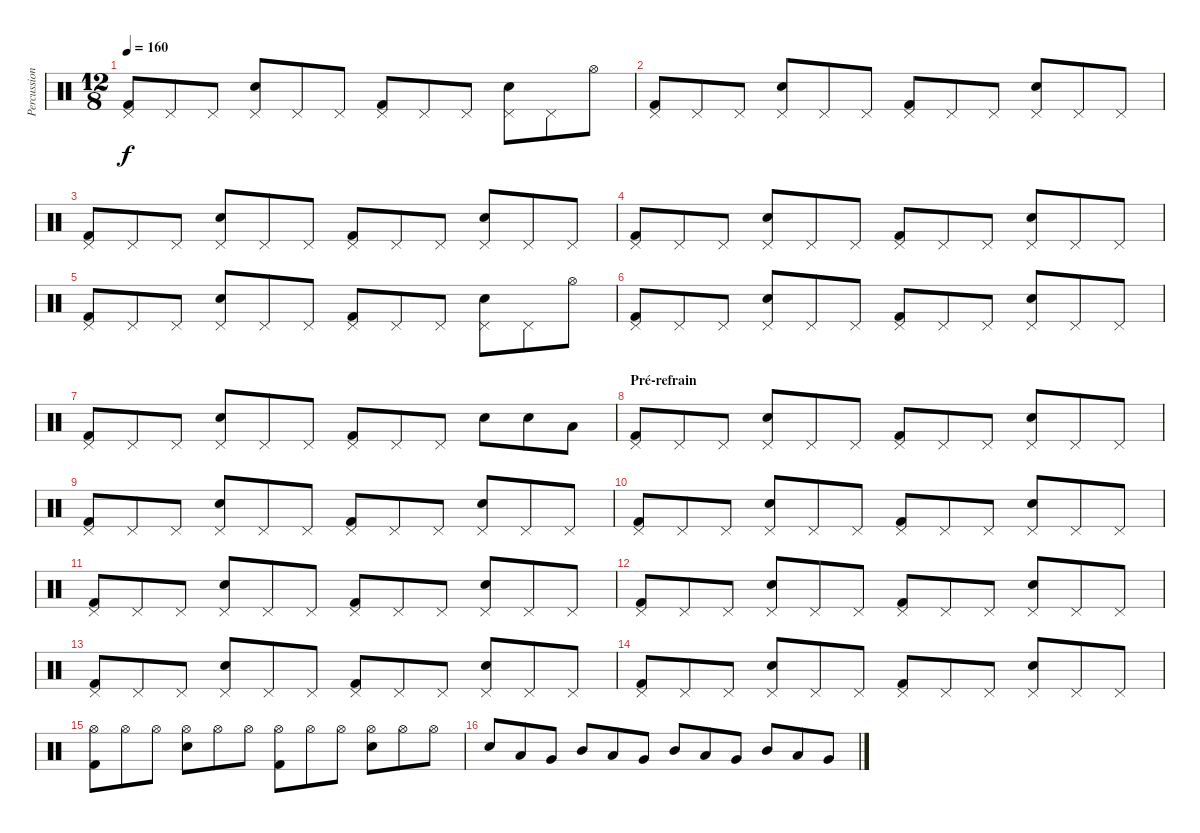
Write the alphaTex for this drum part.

\track ("Percussions" "Percussion") {instrument percussion}
\staff {score}
\articulation defaults
\ts (12 8)
\tempo 160
\clef neutral
\ks c
("Pedal Hi-Hat (hit)" "Kick (hit) 2").8{dy f} "Pedal Hi-Hat (hit)".8 "Pedal Hi-Hat (hit)".8 ("Pedal Hi-Hat (hit)" "Electric Snare (hit)").8 "Pedal Hi-Hat (hit)".8 "Pedal Hi-Hat (hit)".8 ("Pedal Hi-Hat (hit)" "Kick (hit) 2").8 "Pedal Hi-Hat (hit)".8 "Pedal Hi-Hat (hit)".8 ("Pedal Hi-Hat (hit)" "Electric Snare (hit)").8 "Pedal Hi-Hat (hit)".8 "Hi-Hat (open)".8 |
("Pedal Hi-Hat (hit)" "Kick (hit) 2").8 "Pedal Hi-Hat (hit)".8 "Pedal Hi-Hat (hit)".8 ("Pedal Hi-Hat (hit)" "Electric Snare (hit)").8 "Pedal Hi-Hat (hit)".8 "Pedal Hi-Hat (hit)".8 ("Pedal Hi-Hat (hit)" "Kick (hit) 2").8 "Pedal Hi-Hat (hit)".8 "Pedal Hi-Hat (hit)".8 ("Pedal Hi-Hat (hit)" "Electric Snare (hit)").8 "Pedal Hi-Hat (hit)".8 "Pedal Hi-Hat (hit)".8 |
("Pedal Hi-Hat (hit)" "Kick (hit) 2").8 "Pedal Hi-Hat (hit)".8 "Pedal Hi-Hat (hit)".8 ("Pedal Hi-Hat (hit)" "Electric Snare (hit)").8 "Pedal Hi-Hat (hit)".8 "Pedal Hi-Hat (hit)".8 ("Pedal Hi-Hat (hit)" "Kick (hit) 2").8 "Pedal Hi-Hat (hit)".8 "Pedal Hi-Hat (hit)".8 ("Pedal Hi-Hat (hit)" "Electric Snare (hit)").8 "Pedal Hi-Hat (hit)".8 "Pedal Hi-Hat (hit)".8 |
("Pedal Hi-Hat (hit)" "Kick (hit) 2").8 "Pedal Hi-Hat (hit)".8 "Pedal Hi-Hat (hit)".8 ("Pedal Hi-Hat (hit)" "Electric Snare (hit)").8 "Pedal Hi-Hat (hit)".8 "Pedal Hi-Hat (hit)".8 ("Pedal Hi-Hat (hit)" "Kick (hit) 2").8 "Pedal Hi-Hat (hit)".8 "Pedal Hi-Hat (hit)".8 ("Pedal Hi-Hat (hit)" "Electric Snare (hit)").8 "Pedal Hi-Hat (hit)".8 "Pedal Hi-Hat (hit)".8 |
("Pedal Hi-Hat (hit)" "Kick (hit) 2").8 "Pedal Hi-Hat (hit)".8 "Pedal Hi-Hat (hit)".8 ("Pedal Hi-Hat (hit)" "Electric Snare (hit)").8 "Pedal Hi-Hat (hit)".8 "Pedal Hi-Hat (hit)".8 ("Pedal Hi-Hat (hit)" "Kick (hit) 2").8 "Pedal Hi-Hat (hit)".8 "Pedal Hi-Hat (hit)".8 ("Pedal Hi-Hat (hit)" "Electric Snare (hit)").8 "Pedal Hi-Hat (hit)".8 "Hi-Hat (open)".8 |
("Pedal Hi-Hat (hit)" "Kick (hit) 2").8 "Pedal Hi-Hat (hit)".8 "Pedal Hi-Hat (hit)".8 ("Pedal Hi-Hat (hit)" "Electric Snare (hit)").8 "Pedal Hi-Hat (hit)".8 "Pedal Hi-Hat (hit)".8 ("Pedal Hi-Hat (hit)" "Kick (hit) 2").8 "Pedal Hi-Hat (hit)".8 "Pedal Hi-Hat (hit)".8 ("Pedal Hi-Hat (hit)" "Electric Snare (hit)").8 "Pedal Hi-Hat (hit)".8 "Pedal Hi-Hat (hit)".8 |
("Pedal Hi-Hat (hit)" "Kick (hit) 2").8 "Pedal Hi-Hat (hit)".8 "Pedal Hi-Hat (hit)".8 ("Pedal Hi-Hat (hit)" "Electric Snare (hit)").8 "Pedal Hi-Hat (hit)".8 "Pedal Hi-Hat (hit)".8 ("Pedal Hi-Hat (hit)" "Kick (hit) 2").8 "Pedal Hi-Hat (hit)".8 "Pedal Hi-Hat (hit)".8 "Electric Snare (hit)".8 "Electric Snare (hit)".8 "Low Tom (hit)".8 |
\section ("" "Pré-refrain")
("Pedal Hi-Hat (hit)" "Kick (hit) 2").8 "Pedal Hi-Hat (hit)".8 "Pedal Hi-Hat (hit)".8 ("Pedal Hi-Hat (hit)" "Electric Snare (hit)").8 "Pedal Hi-Hat (hit)".8 "Pedal Hi-Hat (hit)".8 ("Pedal Hi-Hat (hit)" "Kick (hit) 2").8 "Pedal Hi-Hat (hit)".8 "Pedal Hi-Hat (hit)".8 ("Pedal Hi-Hat (hit)" "Electric Snare (hit)").8 "Pedal Hi-Hat (hit)".8 "Pedal Hi-Hat (hit)".8 |
("Pedal Hi-Hat (hit)" "Kick (hit) 2").8 "Pedal Hi-Hat (hit)".8 "Pedal Hi-Hat (hit)".8 ("Pedal Hi-Hat (hit)" "Electric Snare (hit)").8 "Pedal Hi-Hat (hit)".8 "Pedal Hi-Hat (hit)".8 ("Pedal Hi-Hat (hit)" "Kick (hit) 2").8 "Pedal Hi-Hat (hit)".8 "Pedal Hi-Hat (hit)".8 ("Pedal Hi-Hat (hit)" "Electric Snare (hit)").8 "Pedal Hi-Hat (hit)".8 "Pedal Hi-Hat (hit)".8 |
("Pedal Hi-Hat (hit)" "Kick (hit) 2").8 "Pedal Hi-Hat (hit)".8 "Pedal Hi-Hat (hit)".8 ("Pedal Hi-Hat (hit)" "Electric Snare (hit)").8 "Pedal Hi-Hat (hit)".8 "Pedal Hi-Hat (hit)".8 ("Pedal Hi-Hat (hit)" "Kick (hit) 2").8 "Pedal Hi-Hat (hit)".8 "Pedal Hi-Hat (hit)".8 ("Pedal Hi-Hat (hit)" "Electric Snare (hit)").8 "Pedal Hi-Hat (hit)".8 "Pedal Hi-Hat (hit)".8 |
("Pedal Hi-Hat (hit)" "Kick (hit) 2").8 "Pedal Hi-Hat (hit)".8 "Pedal Hi-Hat (hit)".8 ("Pedal Hi-Hat (hit)" "Electric Snare (hit)").8 "Pedal Hi-Hat (hit)".8 "Pedal Hi-Hat (hit)".8 ("Pedal Hi-Hat (hit)" "Kick (hit) 2").8 "Pedal Hi-Hat (hit)".8 "Pedal Hi-Hat (hit)".8 ("Pedal Hi-Hat (hit)" "Electric Snare (hit)").8 "Pedal Hi-Hat (hit)".8 "Pedal Hi-Hat (hit)".8 |
("Pedal Hi-Hat (hit)" "Kick (hit) 2").8 "Pedal Hi-Hat (hit)".8 "Pedal Hi-Hat (hit)".8 ("Pedal Hi-Hat (hit)" "Electric Snare (hit)").8 "Pedal Hi-Hat (hit)".8 "Pedal Hi-Hat (hit)".8 ("Pedal Hi-Hat (hit)" "Kick (hit) 2").8 "Pedal Hi-Hat (hit)".8 "Pedal Hi-Hat (hit)".8 ("Pedal Hi-Hat (hit)" "Electric Snare (hit)").8 "Pedal Hi-Hat (hit)".8 "Pedal Hi-Hat (hit)".8 |
("Pedal Hi-Hat (hit)" "Kick (hit) 2").8 "Pedal Hi-Hat (hit)".8 "Pedal Hi-Hat (hit)".8 ("Pedal Hi-Hat (hit)" "Electric Snare (hit)").8 "Pedal Hi-Hat (hit)".8 "Pedal Hi-Hat (hit)".8 ("Pedal Hi-Hat (hit)" "Kick (hit) 2").8 "Pedal Hi-Hat (hit)".8 "Pedal Hi-Hat (hit)".8 ("Pedal Hi-Hat (hit)" "Electric Snare (hit)").8 "Pedal Hi-Hat (hit)".8 "Pedal Hi-Hat (hit)".8 |
("Pedal Hi-Hat (hit)" "Kick (hit) 2").8 "Pedal Hi-Hat (hit)".8 "Pedal Hi-Hat (hit)".8 ("Pedal Hi-Hat (hit)" "Electric Snare (hit)").8 "Pedal Hi-Hat (hit)".8 "Pedal Hi-Hat (hit)".8 ("Pedal Hi-Hat (hit)" "Kick (hit) 2").8 "Pedal Hi-Hat (hit)".8 "Pedal Hi-Hat (hit)".8 ("Pedal Hi-Hat (hit)" "Electric Snare (hit)").8 "Pedal Hi-Hat (hit)".8 "Pedal Hi-Hat (hit)".8 |
("Hi-Hat (open)" "Kick (hit) 2").8 "Hi-Hat (open)".8 "Hi-Hat (open)".8 ("Hi-Hat (open)" "Electric Snare (hit)").8 "Hi-Hat (open)".8 "Hi-Hat (open)".8 ("Hi-Hat (open)" "Kick (hit) 2").8 "Hi-Hat (open)".8 "Hi-Hat (open)".8 ("Hi-Hat (open)" "Electric Snare (hit)").8 "Hi-Hat (open)".8 "Hi-Hat (open)".8 |
"Electric Snare (hit)".8 "Low Tom (hit)".8 "Very Low Tom (hit)".8 "Mid Tom (hit)".8 "Low Tom (hit)".8 "Very Low Tom (hit)".8 "Mid Tom (hit)".8 "Low Tom (hit)".8 "Very Low Tom (hit)".8 "Mid Tom (hit)".8 "Low Tom (hit)".8 "Very Low Tom (hit)".8
